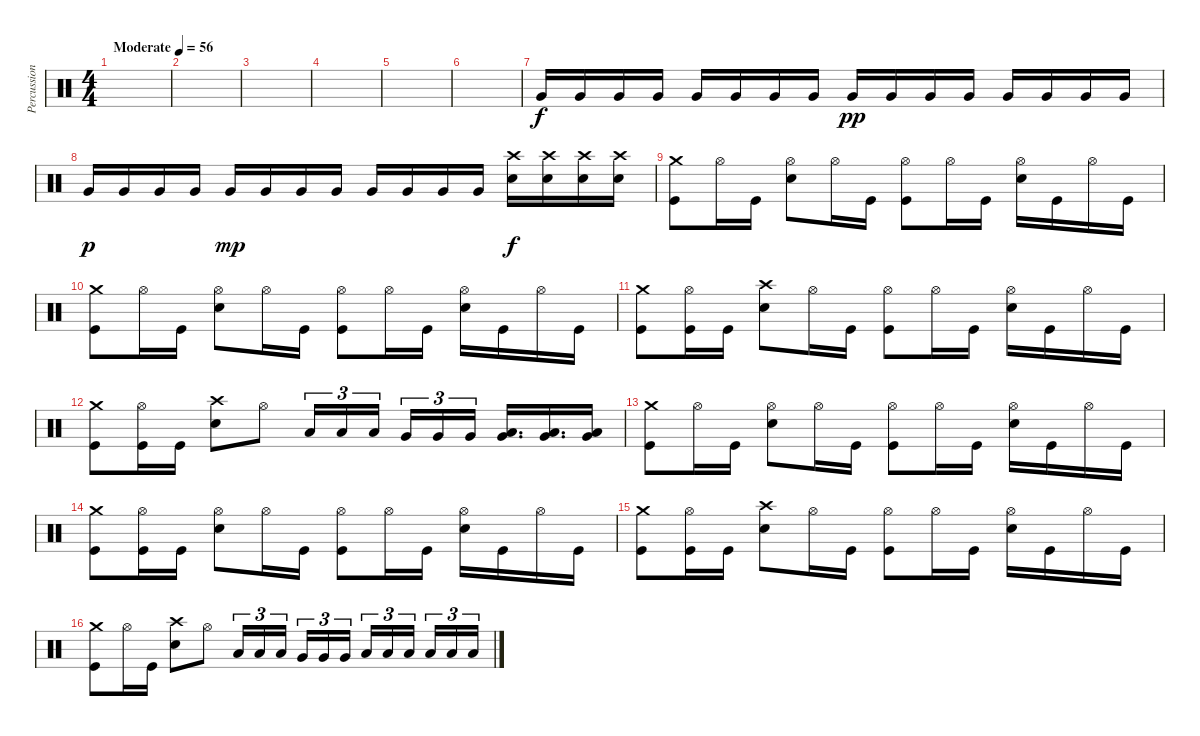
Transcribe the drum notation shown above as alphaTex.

\track ("Percussion" "Percussion") {instrument percussion}
\staff {score}
\articulation defaults
\ts (4 4)
\tempo (56 "Moderate")
\clef neutral
\ks c
|
|
|
|
|
|
"Very Low Tom (hit)".16 "Very Low Tom (hit)".16 "Very Low Tom (hit)".16 "Very Low Tom (hit)".16 "Very Low Tom (hit)".16 "Very Low Tom (hit)".16 "Very Low Tom (hit)".16 "Very Low Tom (hit)".16 "Very Low Tom (hit)".16{dy pp} "Very Low Tom (hit)".16 "Very Low Tom (hit)".16 "Very Low Tom (hit)".16 "Very Low Tom (hit)".16 "Very Low Tom (hit)".16 "Very Low Tom (hit)".16 "Very Low Tom (hit)".16 |
"Very Low Tom (hit)".16{dy p} "Very Low Tom (hit)".16 "Very Low Tom (hit)".16 "Very Low Tom (hit)".16 "Very Low Tom (hit)".16{dy mp} "Very Low Tom (hit)".16 "Very Low Tom (hit)".16 "Very Low Tom (hit)".16 "Very Low Tom (hit)".16 "Very Low Tom (hit)".16 "Very Low Tom (hit)".16 "Very Low Tom (hit)".16 ("Crash high (hit)" "Electric Snare (hit)").16{dy f} ("Crash high (hit)" "Electric Snare (hit)").16 ("Crash high (hit)" "Electric Snare (hit)").16 ("Crash high (hit)" "Electric Snare (hit)").16 |
("Crash medium (hit)" "Kick (hit)").8 "Hi-Hat (open)".16 "Kick (hit)".16 ("Hi-Hat (open)" "Electric Snare (hit)").8 "Hi-Hat (open)".16 "Kick (hit)".16 ("Hi-Hat (open)" "Kick (hit)").8 "Hi-Hat (open)".16 "Kick (hit)".16 ("Hi-Hat (open)" "Electric Snare (hit)").16 "Kick (hit)".16 "Hi-Hat (open)".16 "Kick (hit)".16 |
("Crash medium (hit)" "Kick (hit)").8 "Hi-Hat (open)".16 "Kick (hit)".16 ("Hi-Hat (open)" "Electric Snare (hit)").8 "Hi-Hat (open)".16 "Kick (hit)".16 ("Hi-Hat (open)" "Kick (hit)").8 "Hi-Hat (open)".16 "Kick (hit)".16 ("Hi-Hat (open)" "Electric Snare (hit)").16 "Kick (hit)".16 "Hi-Hat (open)".16 "Kick (hit)".16 |
("Crash medium (hit)" "Kick (hit)").8 ("Hi-Hat (open)" "Kick (hit)").16 "Kick (hit)".16 ("Crash high (hit)" "Electric Snare (hit)").8 "Hi-Hat (open)".16 "Kick (hit)".16 ("Hi-Hat (open)" "Kick (hit)").8 "Hi-Hat (open)".16 "Kick (hit)".16 ("Hi-Hat (open)" "Electric Snare (hit)").16 "Kick (hit)".16 "Hi-Hat (open)".16 "Kick (hit)".16 |
("Crash medium (hit)" "Kick (hit)").8 ("Hi-Hat (open)" "Kick (hit)").16 "Kick (hit)".16 ("Crash high (hit)" "Electric Snare (hit)").8 "Hi-Hat (open)".8 "Low Tom (hit)".16{tu (3 2)} "Low Tom (hit)".16{tu (3 2)} "Low Tom (hit)".16{tu (3 2) beam splitsecondary} "Very Low Tom (hit)".16{tu (3 2)} "Very Low Tom (hit)".16{tu (3 2)} "Very Low Tom (hit)".16{tu (3 2)} ("Very Low Tom (hit)" "Low Floor Tom (hit)").16{d} ("Very Low Tom (hit)" "Low Floor Tom (hit)").16{d} ("Very Low Tom (hit)" "Low Floor Tom (hit)").16 |
("Crash medium (hit)" "Kick (hit)").8 "Hi-Hat (open)".16 "Kick (hit)".16 ("Hi-Hat (open)" "Electric Snare (hit)").8 "Hi-Hat (open)".16 "Kick (hit)".16 ("Hi-Hat (open)" "Kick (hit)").8 "Hi-Hat (open)".16 "Kick (hit)".16 ("Hi-Hat (open)" "Electric Snare (hit)").16 "Kick (hit)".16 "Hi-Hat (open)".16 "Kick (hit)".16 |
("Crash medium (hit)" "Kick (hit)").8 ("Hi-Hat (open)" "Kick (hit)").16 "Kick (hit)".16 ("Hi-Hat (open)" "Electric Snare (hit)").8 "Hi-Hat (open)".16 "Kick (hit)".16 ("Hi-Hat (open)" "Kick (hit)").8 "Hi-Hat (open)".16 "Kick (hit)".16 ("Hi-Hat (open)" "Electric Snare (hit)").16 "Kick (hit)".16 "Hi-Hat (open)".16 "Kick (hit)".16 |
("Crash medium (hit)" "Kick (hit)").8 ("Hi-Hat (open)" "Kick (hit)").16 "Kick (hit)".16 ("Crash high (hit)" "Electric Snare (hit)").8 "Hi-Hat (open)".16 "Kick (hit)".16 ("Hi-Hat (open)" "Kick (hit)").8 "Hi-Hat (open)".16 "Kick (hit)".16 ("Hi-Hat (open)" "Electric Snare (hit)").16 "Kick (hit)".16 "Hi-Hat (open)".16 "Kick (hit)".16 |
("Crash medium (hit)" "Kick (hit)").8 "Hi-Hat (open)".16 "Kick (hit)".16 ("Crash high (hit)" "Electric Snare (hit)").8 "Hi-Hat (open)".8 "Low Tom (hit)".16{tu (3 2)} "Low Tom (hit)".16{tu (3 2)} "Low Tom (hit)".16{tu (3 2) beam splitsecondary} "Very Low Tom (hit)".16{tu (3 2)} "Very Low Tom (hit)".16{tu (3 2)} "Very Low Tom (hit)".16{tu (3 2)} "Low Floor Tom (hit)".16{tu (3 2)} "Low Floor Tom (hit)".16{tu (3 2)} "Low Floor Tom (hit)".16{tu (3 2) beam splitsecondary} "Low Floor Tom (hit)".16{tu (3 2)} "Low Floor Tom (hit)".16{tu (3 2)} "Low Floor Tom (hit)".16{tu (3 2)}
